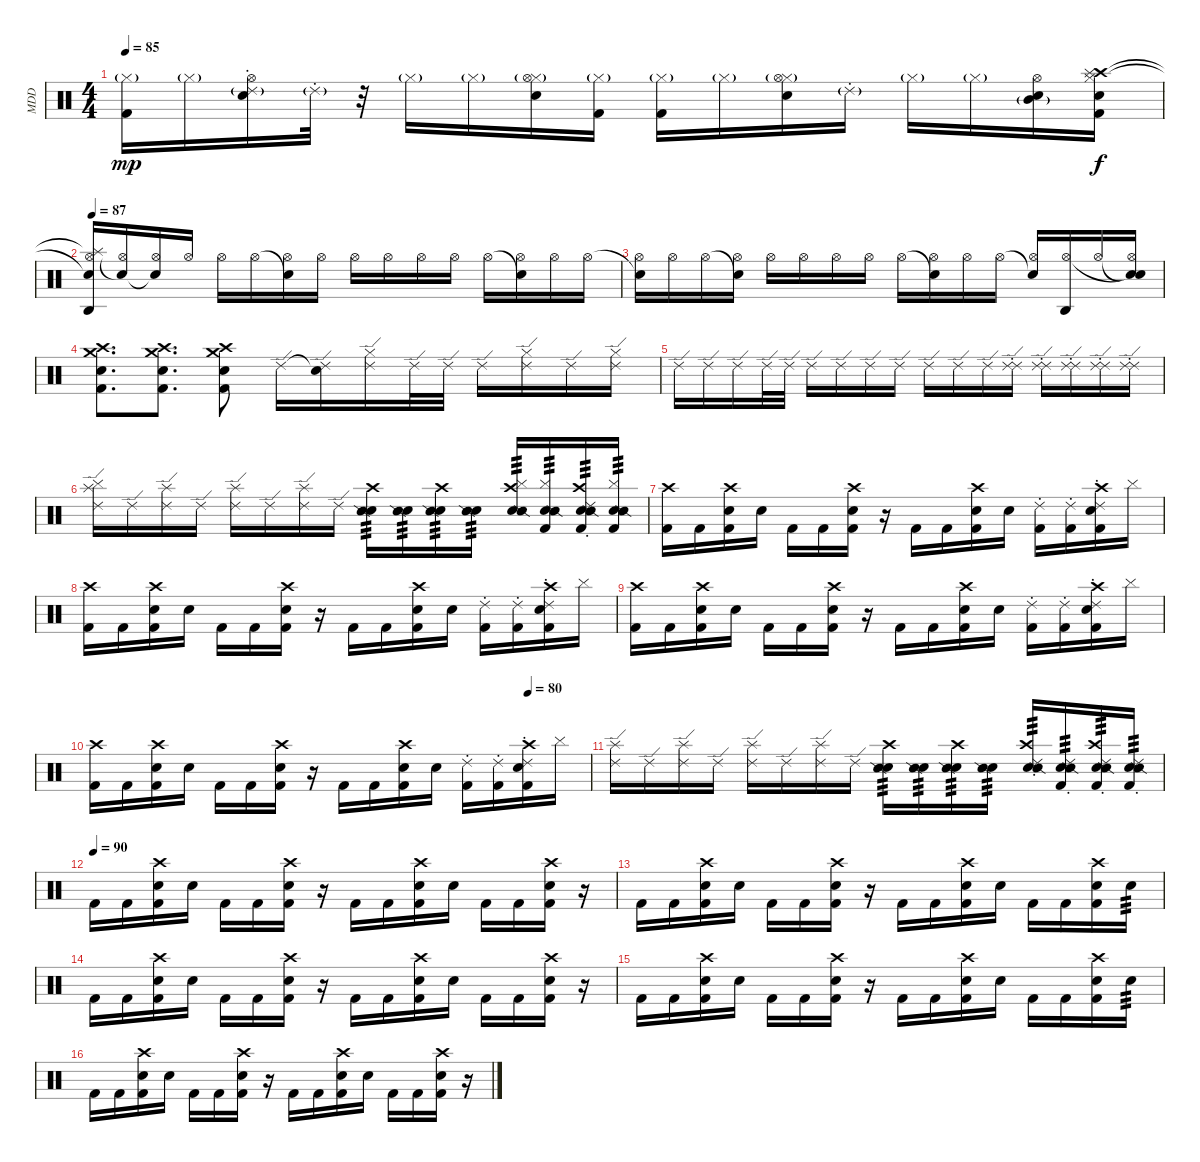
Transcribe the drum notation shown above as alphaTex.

\track ("MDD" "MDD") {instrument percussion}
\staff {score}
\articulation defaults
\ts (4 4)
\tempo 85
\clef neutral
\ks c
("Hi-Hat (closed)"{g} "Kick (hit) 2").16{dy mp} "Hi-Hat (closed)"{g}.16 ("Ride (choke) 2"{g} "Snare (hit) 2" "Hi-Hat (open)").16 "Ride (choke) 2"{g}.32 r.32 "Hi-Hat (closed)"{g}.16 "Hi-Hat (closed)"{g}.16 ("Hi-Hat (closed)"{g} "Snare (hit) 2" "Hi-Hat (open)").16 ("Hi-Hat (closed)"{g} "Kick (hit) 2").16 ("Hi-Hat (closed)"{g} "Kick (hit) 2").16 "Hi-Hat (closed)"{g}.16 ("Hi-Hat (closed)"{g} "Snare (hit) 2" "Hi-Hat (open)").16 "Ride (choke) 2"{g}.16 "Hi-Hat (closed)"{g}.16 "Hi-Hat (closed)"{g}.16 ("Mid Tom (hit)"{g} "Snare (hit) 2" "Hi-Hat (open)").16 ("Crash high (hit)" "Splash (hit)" "Kick (hit) 2" "Hi-Hat (closed)" "Snare (hit) 2").16{dy f} |
\tempo 87
("Splash (hit)"{t} "Agogo high (hit)" "Hi-Hat (open)" "Snare (hit) 2"{t}).16 ("Snare (hit)"{t} "Hi-Hat (open)").16 ("Snare (hit)"{t} "Hi-Hat (open)").16 "Hi-Hat (open)".16 "Hi-Hat (open)".16 "Hi-Hat (open)".16 ("Snare (hit)"{t} "Hi-Hat (open)").16 "Hi-Hat (open)".16 "Hi-Hat (open)".16 "Hi-Hat (open)".16 "Hi-Hat (open)".16 "Hi-Hat (open)".16 "Hi-Hat (open)".16 ("Snare (hit)"{t} "Hi-Hat (open)").16 "Hi-Hat (open)".16 "Hi-Hat (open)".16 |
("Snare (hit)"{t} "Hi-Hat (open)").16 "Hi-Hat (open)".16 "Hi-Hat (open)".16 ("Snare (hit)"{t} "Hi-Hat (open)").16 "Hi-Hat (open)".16 "Hi-Hat (open)".16 "Hi-Hat (open)".16 "Hi-Hat (open)".16 "Hi-Hat (open)".16 ("Snare (hit)"{t} "Hi-Hat (open)").16 "Hi-Hat (open)".16 "Hi-Hat (open)".16 ("Snare (hit)"{t} "Hi-Hat (open)").16 ("Agogo high (hit)" "Hi-Hat (open)").16 "Hi-Hat (open)".16 ("Snare (hit)"{t} "Snare (hit)"{t} "Hi-Hat (open)").16 |
("Crash medium (hit)" "Crash high (hit)" "Kick (hit) 2" "Snare (hit) 2").8{d} ("Crash medium (hit)" "Crash high (hit)" "Kick (hit) 2" "Snare (hit) 2").8{d} ("Crash medium (hit)" "Crash high (hit)" "Kick (hit) 2" "Snare (hit) 2").8 "Ride (edge) 2".16 ("Snare (hit)"{t} "Ride (edge) 2").16 ("Ride (edge) 2" "Hi-Hat (closed)").16 "Ride (edge) 2".32 "Ride (edge) 2".32 "Ride (edge) 2".16 ("Ride (edge) 2" "Hi-Hat (closed)").16 "Ride (edge) 2".16 ("Ride (edge) 2" "Hi-Hat (closed)").16 |
"Ride (edge) 2".16 "Ride (edge) 2".16 "Ride (edge) 2".16 "Ride (edge) 2".32 "Ride (edge) 2".32 "Ride (edge) 2".16 "Ride (edge) 2".16 "Ride (edge) 2".16 "Ride (edge) 2".16 "Ride (edge) 2".16 "Ride (edge) 2".16 "Ride (edge) 2".16 ("Ride (choke) 2" "Ride (edge) 2").16 ("Ride (choke) 2" "Ride (edge) 2").16 ("Ride (choke) 2" "Ride (edge) 2").16 ("Ride (choke) 2" "Ride (edge) 2").16 ("Ride (choke) 2" "Ride (edge) 2").16 |
("Splash (hit)" "Cymbal (hit)" "Ride (edge) 2").16 "Ride (edge) 2".16 ("Splash (hit)" "Ride (edge) 2").16 "Ride (edge) 2".16 ("Splash (hit)" "Ride (edge) 2").16 "Ride (edge) 2".16 ("Splash (hit)" "Ride (edge) 2").16 "Ride (edge) 2".16 ("Crash high (hit)" "Snare (hit) 2" "Snare (side stick) 2").16{tp 3} ("Snare (hit) 2" "Snare (side stick) 2").16{tp 3} ("Crash high (hit)" "Snare (hit) 2" "Snare (side stick) 2").16{tp 3} ("Snare (hit) 2" "Snare (side stick) 2").16{tp 3} ("Crash high (hit)" "Snare (hit) 2" "Snare (side stick) 2" "Cymbal (hit)").16{tp 3} ("Kick (hit) 2" "Snare (hit) 2" "Snare (side stick) 2" "Cymbal (hit)").16{tp 3} ("Crash high (hit)" "Kick (hit) 2" "Snare (hit) 2" "Snare (side stick) 2" "Ride (choke) 2").16{tp 3} ("Kick (hit) 2" "Snare (hit) 2" "Snare (side stick) 2" "Cymbal (hit)").16{tp 3} |
("Crash high (hit)" "Kick (hit) 2").16 "Kick (hit) 2".16 ("Crash high (hit)" "Kick (hit) 2" "Snare (hit) 2").16 "Snare (hit) 2".16 "Kick (hit) 2".16 "Kick (hit) 2".16 ("Crash high (hit)" "Kick (hit) 2" "Snare (hit) 2").16 r.16 "Kick (hit) 2".16 "Kick (hit) 2".16 ("Crash high (hit)" "Kick (hit) 2" "Snare (hit) 2").16 "Snare (hit) 2".16 ("Ride (choke) 2" "Kick (hit) 2").16 ("Ride (choke) 2" "Kick (hit) 2").16 ("Crash high (hit)" "Ride (choke) 2" "Kick (hit) 2" "Snare (hit) 2").16 "Cymbal (hit)".16 |
("Crash high (hit)" "Kick (hit) 2").16 "Kick (hit) 2".16 ("Crash high (hit)" "Kick (hit) 2" "Snare (hit) 2").16 "Snare (hit) 2".16 "Kick (hit) 2".16 "Kick (hit) 2".16 ("Crash high (hit)" "Kick (hit) 2" "Snare (hit) 2").16 r.16 "Kick (hit) 2".16 "Kick (hit) 2".16 ("Crash high (hit)" "Kick (hit) 2" "Snare (hit) 2").16 "Snare (hit) 2".16 ("Ride (choke) 2" "Kick (hit) 2").16 ("Ride (choke) 2" "Kick (hit) 2").16 ("Crash high (hit)" "Ride (choke) 2" "Kick (hit) 2" "Snare (hit) 2").16 "Cymbal (hit)".16 |
("Crash high (hit)" "Kick (hit) 2").16 "Kick (hit) 2".16 ("Crash high (hit)" "Kick (hit) 2" "Snare (hit) 2").16 "Snare (hit) 2".16 "Kick (hit) 2".16 "Kick (hit) 2".16 ("Crash high (hit)" "Kick (hit) 2" "Snare (hit) 2").16 r.16 "Kick (hit) 2".16 "Kick (hit) 2".16 ("Crash high (hit)" "Kick (hit) 2" "Snare (hit) 2").16 "Snare (hit) 2".16 ("Ride (choke) 2" "Kick (hit) 2").16 ("Ride (choke) 2" "Kick (hit) 2").16 ("Crash high (hit)" "Ride (choke) 2" "Kick (hit) 2" "Snare (hit) 2").16 "Cymbal (hit)".16 |
\tempo (80 0.875)
("Crash high (hit)" "Kick (hit) 2").16 "Kick (hit) 2".16 ("Crash high (hit)" "Kick (hit) 2" "Snare (hit) 2").16 "Snare (hit) 2".16 "Kick (hit) 2".16 "Kick (hit) 2".16 ("Crash high (hit)" "Kick (hit) 2" "Snare (hit) 2").16 r.16 "Kick (hit) 2".16 "Kick (hit) 2".16 ("Crash high (hit)" "Kick (hit) 2" "Snare (hit) 2").16 "Snare (hit) 2".16 ("Ride (choke) 2" "Kick (hit) 2").16 ("Ride (choke) 2" "Kick (hit) 2").16 ("Crash high (hit)" "Ride (choke) 2" "Kick (hit) 2" "Snare (hit) 2").16 "Cymbal (hit)".16 |
("Splash (hit)" "Ride (edge) 2").16 "Ride (edge) 2".16 ("Splash (hit)" "Ride (edge) 2").16 "Ride (edge) 2".16 ("Splash (hit)" "Ride (edge) 2").16 "Ride (edge) 2".16 ("Splash (hit)" "Ride (edge) 2").16 "Ride (edge) 2".16 ("Crash high (hit)" "Snare (hit) 2" "Snare (side stick) 2").16{tp 3} ("Snare (hit) 2" "Snare (side stick) 2").16{tp 3} ("Crash high (hit)" "Snare (hit) 2" "Snare (side stick) 2").16{tp 3} ("Snare (hit) 2" "Snare (side stick) 2").16{tp 3} ("Crash high (hit)" "Snare (hit) 2" "Snare (side stick) 2" "Ride (choke) 2").16{tp 3} ("Kick (hit) 2" "Snare (hit) 2" "Snare (side stick) 2" "Ride (choke) 2").16{tp 3} ("Crash high (hit)" "Kick (hit) 2" "Snare (hit) 2" "Snare (side stick) 2" "Ride (choke) 2").16{tp 3} ("Kick (hit) 2" "Snare (hit) 2" "Snare (side stick) 2" "Ride (choke) 2").16{tp 3} |
\tempo (90)
"Kick (hit) 2".16 "Kick (hit) 2".16 ("Crash high (hit)" "Kick (hit) 2" "Snare (hit) 2").16 "Snare (hit) 2".16 "Kick (hit) 2".16 "Kick (hit) 2".16 ("Crash high (hit)" "Kick (hit) 2" "Snare (hit) 2").16 r.16 "Kick (hit) 2".16 "Kick (hit) 2".16 ("Crash high (hit)" "Kick (hit) 2" "Snare (hit) 2").16 "Snare (hit) 2".16 "Kick (hit) 2".16 "Kick (hit) 2".16 ("Crash high (hit)" "Kick (hit) 2" "Snare (hit) 2").16 r.16 |
"Kick (hit) 2".16 "Kick (hit) 2".16 ("Crash high (hit)" "Kick (hit) 2" "Snare (hit) 2").16 "Snare (hit) 2".16 "Kick (hit) 2".16 "Kick (hit) 2".16 ("Crash high (hit)" "Kick (hit) 2" "Snare (hit) 2").16 r.16 "Kick (hit) 2".16 "Kick (hit) 2".16 ("Crash high (hit)" "Kick (hit) 2" "Snare (hit) 2").16 "Snare (hit) 2".16 "Kick (hit) 2".16 "Kick (hit) 2".16 ("Crash high (hit)" "Kick (hit) 2" "Snare (hit) 2").16 "Snare (hit) 2".16{tp 3} |
"Kick (hit) 2".16 "Kick (hit) 2".16 ("Crash high (hit)" "Kick (hit) 2" "Snare (hit) 2").16 "Snare (hit) 2".16 "Kick (hit) 2".16 "Kick (hit) 2".16 ("Crash high (hit)" "Kick (hit) 2" "Snare (hit) 2").16 r.16 "Kick (hit) 2".16 "Kick (hit) 2".16 ("Crash high (hit)" "Kick (hit) 2" "Snare (hit) 2").16 "Snare (hit) 2".16 "Kick (hit) 2".16 "Kick (hit) 2".16 ("Crash high (hit)" "Kick (hit) 2" "Snare (hit) 2").16 r.16 |
"Kick (hit) 2".16 "Kick (hit) 2".16 ("Crash high (hit)" "Kick (hit) 2" "Snare (hit) 2").16 "Snare (hit) 2".16 "Kick (hit) 2".16 "Kick (hit) 2".16 ("Crash high (hit)" "Kick (hit) 2" "Snare (hit) 2").16 r.16 "Kick (hit) 2".16 "Kick (hit) 2".16 ("Crash high (hit)" "Kick (hit) 2" "Snare (hit) 2").16 "Snare (hit) 2".16 "Kick (hit) 2".16 "Kick (hit) 2".16 ("Crash high (hit)" "Kick (hit) 2" "Snare (hit) 2").16 "Snare (hit) 2".16{tp 3} |
"Kick (hit) 2".16 "Kick (hit) 2".16 ("Crash high (hit)" "Kick (hit) 2" "Snare (hit) 2").16 "Snare (hit) 2".16 "Kick (hit) 2".16 "Kick (hit) 2".16 ("Crash high (hit)" "Kick (hit) 2" "Snare (hit) 2").16 r.16 "Kick (hit) 2".16 "Kick (hit) 2".16 ("Crash high (hit)" "Kick (hit) 2" "Snare (hit) 2").16 "Snare (hit) 2".16 "Kick (hit) 2".16 "Kick (hit) 2".16 ("Crash high (hit)" "Kick (hit) 2" "Snare (hit) 2").16 r.16
